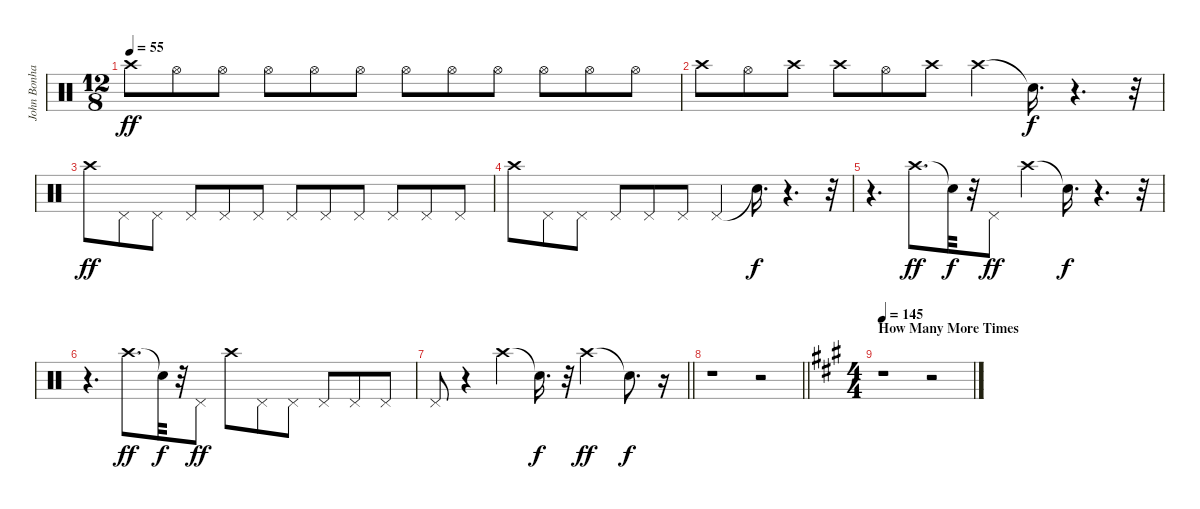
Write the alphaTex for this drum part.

\track ("John Bonham - Drums" "John Bonha") {instrument percussion}
\staff {score}
\articulation defaults
\ts (12 8)
\tempo 55
\clef neutral
\ks c "Crash high (hit)".8{dy ff} "Hi-Hat (open)".8 "Hi-Hat (open)".8 "Hi-Hat (open)".8 "Hi-Hat (open)".8 "Hi-Hat (open)".8 "Hi-Hat (open)".8 "Hi-Hat (open)".8 "Hi-Hat (open)".8 "Hi-Hat (open)".8 "Hi-Hat (open)".8 "Hi-Hat (open)".8
|
"Crash high (hit)".8 "Hi-Hat (open)".8 "Crash high (hit)".8 "Crash high (hit)".8 "Hi-Hat (open)".8 "Crash high (hit)".8 "Crash high (hit)".4 "Snare (hit)"{t}.16{d dy f} r.4{d} r.32 |
"Crash high (hit)".8{dy ff} "Pedal Hi-Hat (hit)".8 "Pedal Hi-Hat (hit)".8 "Pedal Hi-Hat (hit)".8 "Pedal Hi-Hat (hit)".8 "Pedal Hi-Hat (hit)".8 "Pedal Hi-Hat (hit)".8 "Pedal Hi-Hat (hit)".8 "Pedal Hi-Hat (hit)".8 "Pedal Hi-Hat (hit)".8 "Pedal Hi-Hat (hit)".8 "Pedal Hi-Hat (hit)".8 |
"Crash high (hit)".8 "Pedal Hi-Hat (hit)".8 "Pedal Hi-Hat (hit)".8 "Pedal Hi-Hat (hit)".8 "Pedal Hi-Hat (hit)".8 "Pedal Hi-Hat (hit)".8 "Pedal Hi-Hat (hit)".4 "Snare (hit)"{t}.16{d dy f} r.4{d} r.32 |
r.4{d} "Crash high (hit)".8{d dy ff} "Snare (hit)"{t}.32{dy f} r.32 "Pedal Hi-Hat (hit)".8{dy ff} "Crash high (hit)".4 "Snare (hit)"{t}.16{d dy f} r.4{d} r.32 |
r.4{d} "Crash high (hit)".8{d dy ff} "Snare (hit)"{t}.32{dy f} r.32 "Pedal Hi-Hat (hit)".8{dy ff} "Crash high (hit)".8 "Pedal Hi-Hat (hit)".8 "Pedal Hi-Hat (hit)".8 "Pedal Hi-Hat (hit)".8 "Pedal Hi-Hat (hit)".8 "Pedal Hi-Hat (hit)".8 |
\barLineRight lightlight "Pedal Hi-Hat (hit)".8
r.4 "Crash high (hit)".4 "Snare (hit)"{t}.16{d dy f} r.32 "Crash high (hit)".2{dy ff} "Snare (hit)"{t}.8{d dy f} r.16 |
\barLineRight lightlight
r.1 r.2 |
\ts (4 4)
\section ("" "How Many More Times")
\tempo 145
\ks a
r.1 r.2
